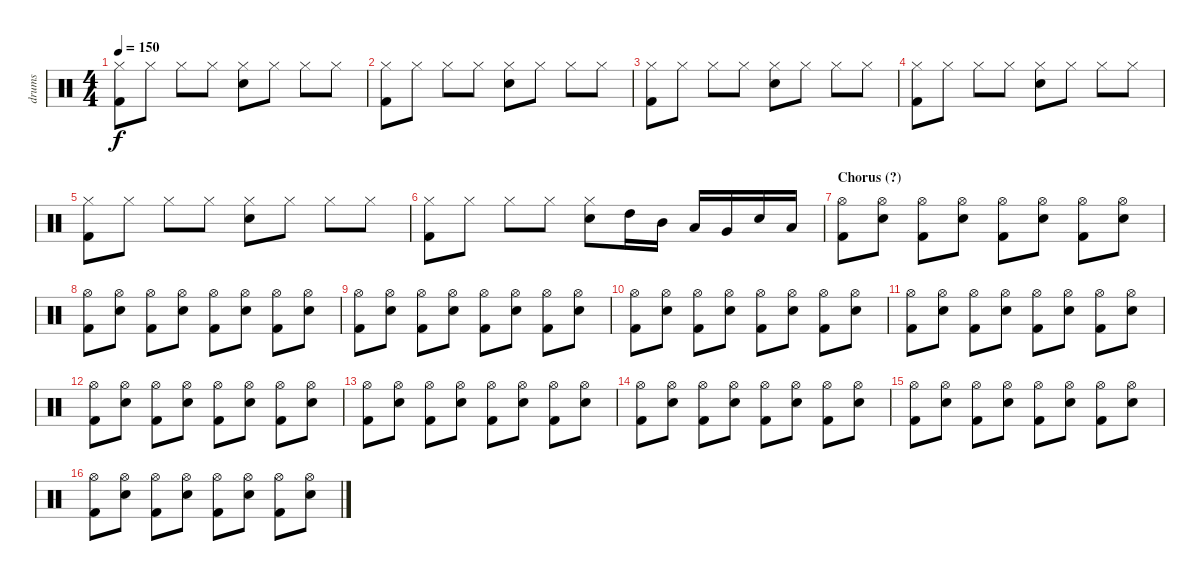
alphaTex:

\track ("drums" "drums") {instrument percussion}
\staff {score}
\articulation defaults
\ts (4 4)
\tempo 150
\clef neutral
\ks c
("Hi-Hat (closed)" "Kick (hit) 2").8{dy f} "Hi-Hat (closed)".8 "Hi-Hat (closed)".8 "Hi-Hat (closed)".8 ("Hi-Hat (closed)" "Snare (hit) 2").8 "Hi-Hat (closed)".8 "Hi-Hat (closed)".8 "Hi-Hat (closed)".8 |
("Hi-Hat (closed)" "Kick (hit) 2").8 "Hi-Hat (closed)".8 "Hi-Hat (closed)".8 "Hi-Hat (closed)".8 ("Hi-Hat (closed)" "Snare (hit) 2").8 "Hi-Hat (closed)".8 "Hi-Hat (closed)".8 "Hi-Hat (closed)".8 |
("Hi-Hat (closed)" "Kick (hit) 2").8 "Hi-Hat (closed)".8 "Hi-Hat (closed)".8 "Hi-Hat (closed)".8 ("Hi-Hat (closed)" "Snare (hit) 2").8 "Hi-Hat (closed)".8 "Hi-Hat (closed)".8 "Hi-Hat (closed)".8 |
("Hi-Hat (closed)" "Kick (hit) 2").8 "Hi-Hat (closed)".8 "Hi-Hat (closed)".8 "Hi-Hat (closed)".8 ("Hi-Hat (closed)" "Snare (hit) 2").8 "Hi-Hat (closed)".8 "Hi-Hat (closed)".8 "Hi-Hat (closed)".8 |
("Hi-Hat (closed)" "Kick (hit) 2").8 "Hi-Hat (closed)".8 "Hi-Hat (closed)".8 "Hi-Hat (closed)".8 ("Hi-Hat (closed)" "Snare (hit) 2").8 "Hi-Hat (closed)".8 "Hi-Hat (closed)".8 "Hi-Hat (closed)".8 |
("Hi-Hat (closed)" "Kick (hit) 2").8 "Hi-Hat (closed)".8 "Hi-Hat (closed)".8 "Hi-Hat (closed)".8 ("Hi-Hat (closed)" "Snare (hit) 2").8 "High Tom (hit)".16 "Mid Tom (hit)".16 "Low Tom (hit)".16 "Very Low Tom (hit)".16 "Snare (hit) 2".16 "Low Floor Tom (hit)".16 |
\section ("" "Chorus (?)")
("Hi-Hat (open)" "Kick (hit) 2").8 ("Hi-Hat (open)" "Snare (hit) 2").8 ("Hi-Hat (open)" "Kick (hit) 2").8 ("Hi-Hat (open)" "Snare (hit) 2").8 ("Hi-Hat (open)" "Kick (hit) 2").8 ("Hi-Hat (open)" "Snare (hit) 2").8 ("Hi-Hat (open)" "Kick (hit) 2").8 ("Hi-Hat (open)" "Snare (hit) 2").8 |
("Hi-Hat (open)" "Kick (hit) 2").8 ("Hi-Hat (open)" "Snare (hit) 2").8 ("Hi-Hat (open)" "Kick (hit) 2").8 ("Hi-Hat (open)" "Snare (hit) 2").8 ("Hi-Hat (open)" "Kick (hit) 2").8 ("Hi-Hat (open)" "Snare (hit) 2").8 ("Hi-Hat (open)" "Kick (hit) 2").8 ("Hi-Hat (open)" "Snare (hit) 2").8 |
("Hi-Hat (open)" "Kick (hit) 2").8 ("Hi-Hat (open)" "Snare (hit) 2").8 ("Hi-Hat (open)" "Kick (hit) 2").8 ("Hi-Hat (open)" "Snare (hit) 2").8 ("Hi-Hat (open)" "Kick (hit) 2").8 ("Hi-Hat (open)" "Snare (hit) 2").8 ("Hi-Hat (open)" "Kick (hit) 2").8 ("Hi-Hat (open)" "Snare (hit) 2").8 |
("Hi-Hat (open)" "Kick (hit) 2").8 ("Hi-Hat (open)" "Snare (hit) 2").8 ("Hi-Hat (open)" "Kick (hit) 2").8 ("Hi-Hat (open)" "Snare (hit) 2").8 ("Hi-Hat (open)" "Kick (hit) 2").8 ("Hi-Hat (open)" "Snare (hit) 2").8 ("Hi-Hat (open)" "Kick (hit) 2").8 ("Hi-Hat (open)" "Snare (hit) 2").8 |
("Hi-Hat (open)" "Kick (hit) 2").8 ("Hi-Hat (open)" "Snare (hit) 2").8 ("Hi-Hat (open)" "Kick (hit) 2").8 ("Hi-Hat (open)" "Snare (hit) 2").8 ("Hi-Hat (open)" "Kick (hit) 2").8 ("Hi-Hat (open)" "Snare (hit) 2").8 ("Hi-Hat (open)" "Kick (hit) 2").8 ("Hi-Hat (open)" "Snare (hit) 2").8 |
("Hi-Hat (open)" "Kick (hit) 2").8 ("Hi-Hat (open)" "Snare (hit) 2").8 ("Hi-Hat (open)" "Kick (hit) 2").8 ("Hi-Hat (open)" "Snare (hit) 2").8 ("Hi-Hat (open)" "Kick (hit) 2").8 ("Hi-Hat (open)" "Snare (hit) 2").8 ("Hi-Hat (open)" "Kick (hit) 2").8 ("Hi-Hat (open)" "Snare (hit) 2").8 |
("Hi-Hat (open)" "Kick (hit) 2").8 ("Hi-Hat (open)" "Snare (hit) 2").8 ("Hi-Hat (open)" "Kick (hit) 2").8 ("Hi-Hat (open)" "Snare (hit) 2").8 ("Hi-Hat (open)" "Kick (hit) 2").8 ("Hi-Hat (open)" "Snare (hit) 2").8 ("Hi-Hat (open)" "Kick (hit) 2").8 ("Hi-Hat (open)" "Snare (hit) 2").8 |
("Hi-Hat (open)" "Kick (hit) 2").8 ("Hi-Hat (open)" "Snare (hit) 2").8 ("Hi-Hat (open)" "Kick (hit) 2").8 ("Hi-Hat (open)" "Snare (hit) 2").8 ("Hi-Hat (open)" "Kick (hit) 2").8 ("Hi-Hat (open)" "Snare (hit) 2").8 ("Hi-Hat (open)" "Kick (hit) 2").8 ("Hi-Hat (open)" "Snare (hit) 2").8 |
("Hi-Hat (open)" "Kick (hit) 2").8 ("Hi-Hat (open)" "Snare (hit) 2").8 ("Hi-Hat (open)" "Kick (hit) 2").8 ("Hi-Hat (open)" "Snare (hit) 2").8 ("Hi-Hat (open)" "Kick (hit) 2").8 ("Hi-Hat (open)" "Snare (hit) 2").8 ("Hi-Hat (open)" "Kick (hit) 2").8 ("Hi-Hat (open)" "Snare (hit) 2").8 |
("Hi-Hat (open)" "Kick (hit) 2").8 ("Hi-Hat (open)" "Snare (hit) 2").8 ("Hi-Hat (open)" "Kick (hit) 2").8 ("Hi-Hat (open)" "Snare (hit) 2").8 ("Hi-Hat (open)" "Kick (hit) 2").8 ("Hi-Hat (open)" "Snare (hit) 2").8 ("Hi-Hat (open)" "Kick (hit) 2").8 ("Hi-Hat (open)" "Snare (hit) 2").8
